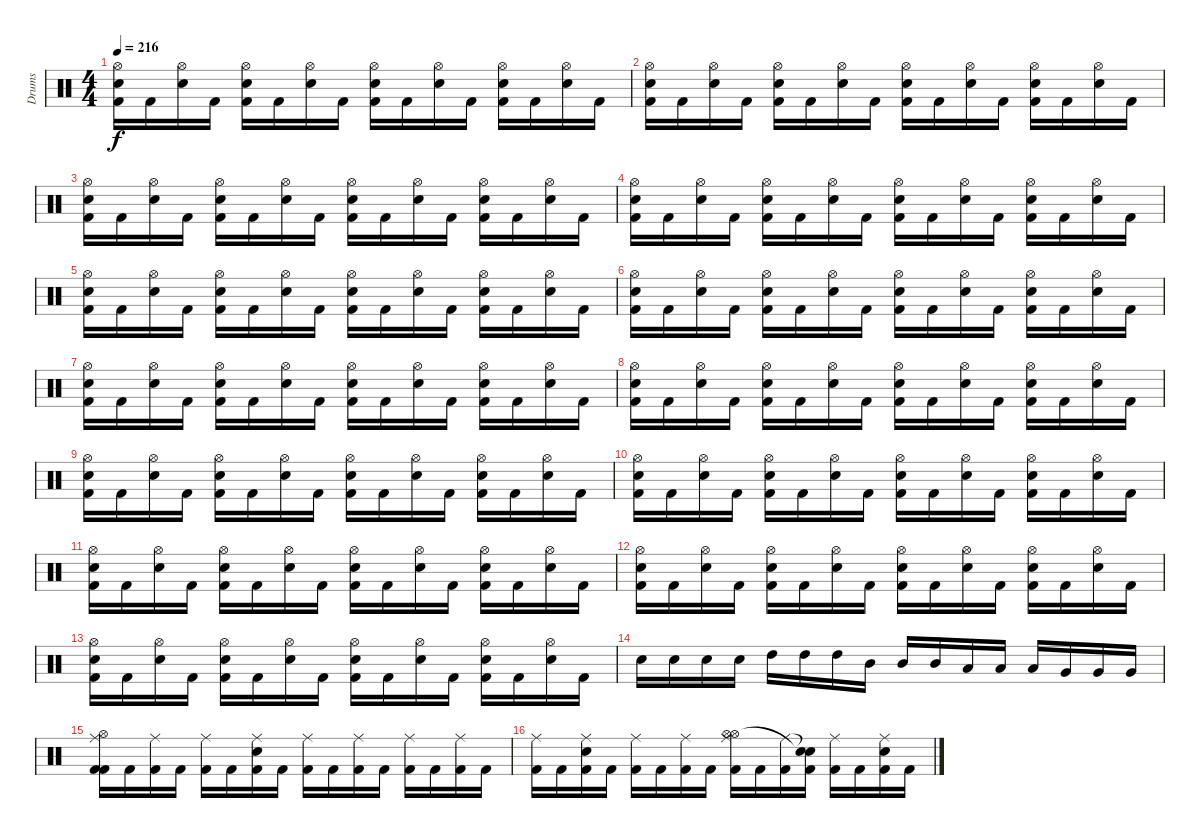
\track ("Drums" "Drums") {instrument percussion}
\staff {score}
\articulation defaults
\ts (4 4)
\tempo 216
\clef neutral
\ks c
("Hi-Hat (open)" "Snare (hit) 2" "Kick (hit) 2").16{dy f} "Kick (hit) 2".16 ("Hi-Hat (open)" "Snare (hit) 2").16 "Kick (hit) 2".16 ("Hi-Hat (open)" "Snare (hit) 2" "Kick (hit) 2").16 "Kick (hit) 2".16 ("Hi-Hat (open)" "Snare (hit) 2").16 "Kick (hit) 2".16 ("Hi-Hat (open)" "Snare (hit) 2" "Kick (hit) 2").16 "Kick (hit) 2".16 ("Hi-Hat (open)" "Snare (hit) 2").16 "Kick (hit) 2".16 ("Hi-Hat (open)" "Snare (hit) 2" "Kick (hit) 2").16 "Kick (hit) 2".16 ("Hi-Hat (open)" "Snare (hit) 2").16 "Kick (hit) 2".16 |
("Hi-Hat (open)" "Snare (hit) 2" "Kick (hit) 2").16 "Kick (hit) 2".16 ("Hi-Hat (open)" "Snare (hit) 2").16 "Kick (hit) 2".16 ("Hi-Hat (open)" "Snare (hit) 2" "Kick (hit) 2").16 "Kick (hit) 2".16 ("Hi-Hat (open)" "Snare (hit) 2").16 "Kick (hit) 2".16 ("Hi-Hat (open)" "Snare (hit) 2" "Kick (hit) 2").16 "Kick (hit) 2".16 ("Hi-Hat (open)" "Snare (hit) 2").16 "Kick (hit) 2".16 ("Hi-Hat (open)" "Snare (hit) 2" "Kick (hit) 2").16 "Kick (hit) 2".16 ("Hi-Hat (open)" "Snare (hit) 2").16 "Kick (hit) 2".16 |
("Hi-Hat (open)" "Snare (hit) 2" "Kick (hit) 2").16 "Kick (hit) 2".16 ("Hi-Hat (open)" "Snare (hit) 2").16 "Kick (hit) 2".16 ("Hi-Hat (open)" "Snare (hit) 2" "Kick (hit) 2").16 "Kick (hit) 2".16 ("Hi-Hat (open)" "Snare (hit) 2").16 "Kick (hit) 2".16 ("Hi-Hat (open)" "Snare (hit) 2" "Kick (hit) 2").16 "Kick (hit) 2".16 ("Hi-Hat (open)" "Snare (hit) 2").16 "Kick (hit) 2".16 ("Hi-Hat (open)" "Snare (hit) 2" "Kick (hit) 2").16 "Kick (hit) 2".16 ("Hi-Hat (open)" "Snare (hit) 2").16 "Kick (hit) 2".16 |
("Hi-Hat (open)" "Snare (hit) 2" "Kick (hit) 2").16 "Kick (hit) 2".16 ("Hi-Hat (open)" "Snare (hit) 2").16 "Kick (hit) 2".16 ("Hi-Hat (open)" "Snare (hit) 2" "Kick (hit) 2").16 "Kick (hit) 2".16 ("Hi-Hat (open)" "Snare (hit) 2").16 "Kick (hit) 2".16 ("Hi-Hat (open)" "Snare (hit) 2" "Kick (hit) 2").16 "Kick (hit) 2".16 ("Hi-Hat (open)" "Snare (hit) 2").16 "Kick (hit) 2".16 ("Hi-Hat (open)" "Snare (hit) 2" "Kick (hit) 2").16 "Kick (hit) 2".16 ("Hi-Hat (open)" "Snare (hit) 2").16 "Kick (hit) 2".16 |
("Hi-Hat (open)" "Snare (hit) 2" "Kick (hit) 2").16 "Kick (hit) 2".16 ("Hi-Hat (open)" "Snare (hit) 2").16 "Kick (hit) 2".16 ("Hi-Hat (open)" "Snare (hit) 2" "Kick (hit) 2").16 "Kick (hit) 2".16 ("Hi-Hat (open)" "Snare (hit) 2").16 "Kick (hit) 2".16 ("Hi-Hat (open)" "Snare (hit) 2" "Kick (hit) 2").16 "Kick (hit) 2".16 ("Hi-Hat (open)" "Snare (hit) 2").16 "Kick (hit) 2".16 ("Hi-Hat (open)" "Snare (hit) 2" "Kick (hit) 2").16 "Kick (hit) 2".16 ("Hi-Hat (open)" "Snare (hit) 2").16 "Kick (hit) 2".16 |
("Hi-Hat (open)" "Snare (hit) 2" "Kick (hit) 2").16 "Kick (hit) 2".16 ("Hi-Hat (open)" "Snare (hit) 2").16 "Kick (hit) 2".16 ("Hi-Hat (open)" "Snare (hit) 2" "Kick (hit) 2").16 "Kick (hit) 2".16 ("Hi-Hat (open)" "Snare (hit) 2").16 "Kick (hit) 2".16 ("Hi-Hat (open)" "Snare (hit) 2" "Kick (hit) 2").16 "Kick (hit) 2".16 ("Hi-Hat (open)" "Snare (hit) 2").16 "Kick (hit) 2".16 ("Hi-Hat (open)" "Snare (hit) 2" "Kick (hit) 2").16 "Kick (hit) 2".16 ("Hi-Hat (open)" "Snare (hit) 2").16 "Kick (hit) 2".16 |
("Hi-Hat (open)" "Snare (hit) 2" "Kick (hit) 2").16 "Kick (hit) 2".16 ("Hi-Hat (open)" "Snare (hit) 2").16 "Kick (hit) 2".16 ("Hi-Hat (open)" "Snare (hit) 2" "Kick (hit) 2").16 "Kick (hit) 2".16 ("Hi-Hat (open)" "Snare (hit) 2").16 "Kick (hit) 2".16 ("Hi-Hat (open)" "Snare (hit) 2" "Kick (hit) 2").16 "Kick (hit) 2".16 ("Hi-Hat (open)" "Snare (hit) 2").16 "Kick (hit) 2".16 ("Hi-Hat (open)" "Snare (hit) 2" "Kick (hit) 2").16 "Kick (hit) 2".16 ("Hi-Hat (open)" "Snare (hit) 2").16 "Kick (hit) 2".16 |
("Hi-Hat (open)" "Snare (hit) 2" "Kick (hit) 2").16 "Kick (hit) 2".16 ("Hi-Hat (open)" "Snare (hit) 2").16 "Kick (hit) 2".16 ("Hi-Hat (open)" "Snare (hit) 2" "Kick (hit) 2").16 "Kick (hit) 2".16 ("Hi-Hat (open)" "Snare (hit) 2").16 "Kick (hit) 2".16 ("Hi-Hat (open)" "Snare (hit) 2" "Kick (hit) 2").16 "Kick (hit) 2".16 ("Hi-Hat (open)" "Snare (hit) 2").16 "Kick (hit) 2".16 ("Hi-Hat (open)" "Snare (hit) 2" "Kick (hit) 2").16 "Kick (hit) 2".16 ("Hi-Hat (open)" "Snare (hit) 2").16 "Kick (hit) 2".16 |
("Hi-Hat (open)" "Snare (hit) 2" "Kick (hit) 2").16 "Kick (hit) 2".16 ("Hi-Hat (open)" "Snare (hit) 2").16 "Kick (hit) 2".16 ("Hi-Hat (open)" "Snare (hit) 2" "Kick (hit) 2").16 "Kick (hit) 2".16 ("Hi-Hat (open)" "Snare (hit) 2").16 "Kick (hit) 2".16 ("Hi-Hat (open)" "Snare (hit) 2" "Kick (hit) 2").16 "Kick (hit) 2".16 ("Hi-Hat (open)" "Snare (hit) 2").16 "Kick (hit) 2".16 ("Hi-Hat (open)" "Snare (hit) 2" "Kick (hit) 2").16 "Kick (hit) 2".16 ("Hi-Hat (open)" "Snare (hit) 2").16 "Kick (hit) 2".16 |
("Hi-Hat (open)" "Snare (hit) 2" "Kick (hit) 2").16 "Kick (hit) 2".16 ("Hi-Hat (open)" "Snare (hit) 2").16 "Kick (hit) 2".16 ("Hi-Hat (open)" "Snare (hit) 2" "Kick (hit) 2").16 "Kick (hit) 2".16 ("Hi-Hat (open)" "Snare (hit) 2").16 "Kick (hit) 2".16 ("Hi-Hat (open)" "Snare (hit) 2" "Kick (hit) 2").16 "Kick (hit) 2".16 ("Hi-Hat (open)" "Snare (hit) 2").16 "Kick (hit) 2".16 ("Hi-Hat (open)" "Snare (hit) 2" "Kick (hit) 2").16 "Kick (hit) 2".16 ("Hi-Hat (open)" "Snare (hit) 2").16 "Kick (hit) 2".16 |
("Hi-Hat (open)" "Snare (hit) 2" "Kick (hit) 2").16 "Kick (hit) 2".16 ("Hi-Hat (open)" "Snare (hit) 2").16 "Kick (hit) 2".16 ("Hi-Hat (open)" "Snare (hit) 2" "Kick (hit) 2").16 "Kick (hit) 2".16 ("Hi-Hat (open)" "Snare (hit) 2").16 "Kick (hit) 2".16 ("Hi-Hat (open)" "Snare (hit) 2" "Kick (hit) 2").16 "Kick (hit) 2".16 ("Hi-Hat (open)" "Snare (hit) 2").16 "Kick (hit) 2".16 ("Hi-Hat (open)" "Snare (hit) 2" "Kick (hit) 2").16 "Kick (hit) 2".16 ("Hi-Hat (open)" "Snare (hit) 2").16 "Kick (hit) 2".16 |
("Hi-Hat (open)" "Snare (hit) 2" "Kick (hit) 2").16 "Kick (hit) 2".16 ("Hi-Hat (open)" "Snare (hit) 2").16 "Kick (hit) 2".16 ("Hi-Hat (open)" "Snare (hit) 2" "Kick (hit) 2").16 "Kick (hit) 2".16 ("Hi-Hat (open)" "Snare (hit) 2").16 "Kick (hit) 2".16 ("Hi-Hat (open)" "Snare (hit) 2" "Kick (hit) 2").16 "Kick (hit) 2".16 ("Hi-Hat (open)" "Snare (hit) 2").16 "Kick (hit) 2".16 ("Hi-Hat (open)" "Snare (hit) 2" "Kick (hit) 2").16 "Kick (hit) 2".16 ("Hi-Hat (open)" "Snare (hit) 2").16 "Kick (hit) 2".16 |
("Hi-Hat (open)" "Snare (hit) 2" "Kick (hit) 2").16 "Kick (hit) 2".16 ("Hi-Hat (open)" "Snare (hit) 2").16 "Kick (hit) 2".16 ("Hi-Hat (open)" "Snare (hit) 2" "Kick (hit) 2").16 "Kick (hit) 2".16 ("Hi-Hat (open)" "Snare (hit) 2").16 "Kick (hit) 2".16 ("Hi-Hat (open)" "Snare (hit) 2" "Kick (hit) 2").16 "Kick (hit) 2".16 ("Hi-Hat (open)" "Snare (hit) 2").16 "Kick (hit) 2".16 ("Hi-Hat (open)" "Snare (hit) 2" "Kick (hit) 2").16 "Kick (hit) 2".16 ("Hi-Hat (open)" "Snare (hit) 2").16 "Kick (hit) 2".16 |
"Electric Snare (hit)".16 "Electric Snare (hit)".16 "Electric Snare (hit)".16 "Electric Snare (hit)".16 "High Tom (hit)".16 "High Tom (hit)".16 "High Tom (hit)".16 "Mid Tom (hit)".16 "Mid Tom (hit)".16 "Mid Tom (hit)".16 "Low Tom (hit)".16 "Low Tom (hit)".16 "Low Tom (hit)".16 "Very Low Tom (hit)".16 "Very Low Tom (hit)".16 "Very Low Tom (hit)".16 |
("Kick (hit) 2" "Ride (middle)" "Hi-Hat (open)" "Kick (hit) 2").16 "Kick (hit) 2".16 ("Kick (hit) 2" "Ride (middle)").16 "Kick (hit) 2".16 ("Kick (hit) 2" "Ride (middle)").16 "Kick (hit) 2".16 ("Kick (hit) 2" "Ride (middle)" "Snare (hit) 2").16 "Kick (hit) 2".16 ("Kick (hit) 2" "Ride (middle)").16 "Kick (hit) 2".16 ("Kick (hit) 2" "Ride (middle)").16 "Kick (hit) 2".16 ("Kick (hit) 2" "Ride (middle)").16 "Kick (hit) 2".16 ("Kick (hit) 2" "Ride (middle)").16 "Kick (hit) 2".16 |
("Kick (hit) 2" "Ride (middle)").16 "Kick (hit) 2".16 ("Kick (hit) 2" "Ride (middle)" "Snare (hit) 2").16 "Kick (hit) 2".16 ("Kick (hit) 2" "Ride (middle)").16 "Kick (hit) 2".16 ("Kick (hit) 2" "Ride (middle)").16 "Kick (hit) 2".16 ("Kick (hit) 2" "Ride (middle)" "Hi-Hat (open)" "Hi-Hat (open)").16 "Kick (hit) 2".16 ("Kick (hit) 2" "Ride (middle)").16 ("Kick (hit) 2" "Snare (hit)"{t} "Snare (hit)"{t}).16 ("Kick (hit) 2" "Ride (middle)").16 "Kick (hit) 2".16 ("Kick (hit) 2" "Ride (middle)" "Snare (hit) 2").16 "Kick (hit) 2".16
